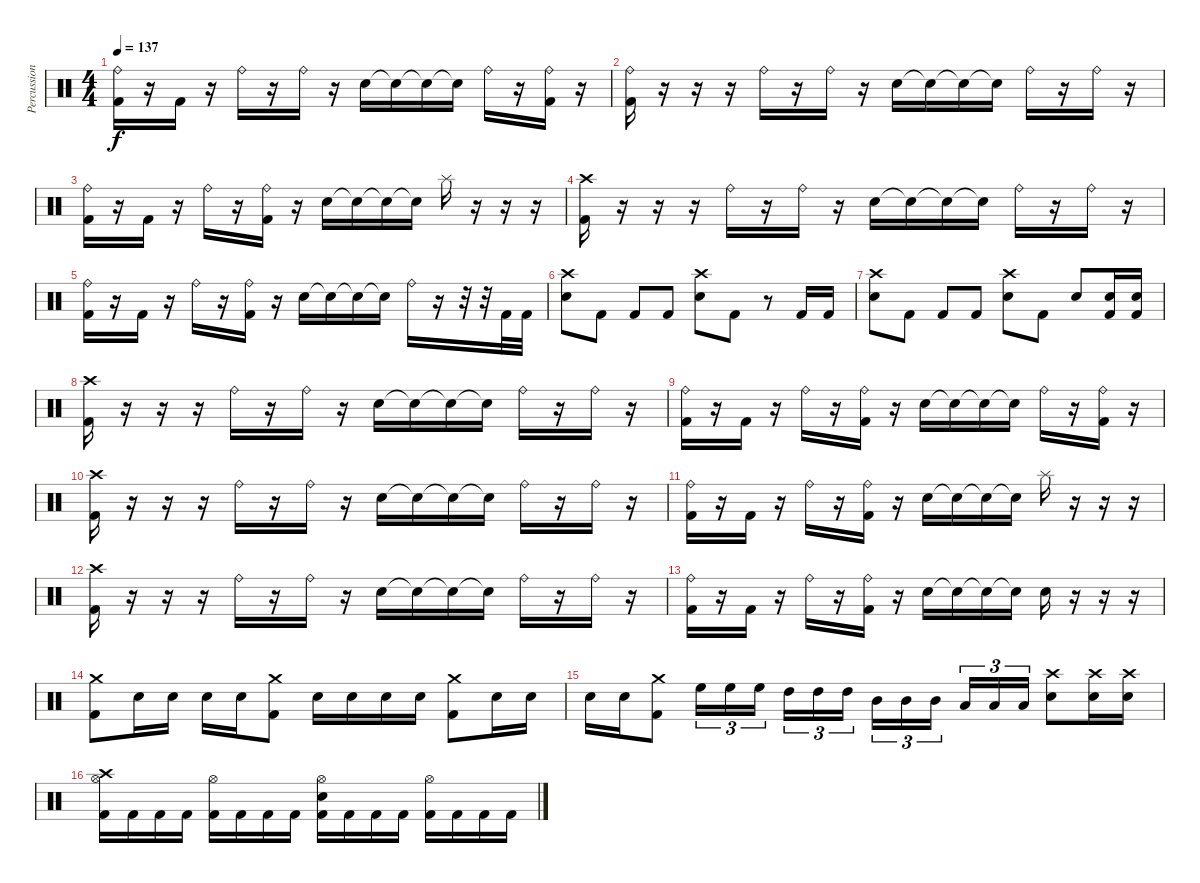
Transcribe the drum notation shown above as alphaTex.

\track ("Percussion" "Percussion") {instrument percussion}
\staff {score}
\articulation defaults
\ts (4 4)
\tempo 137
\clef neutral
\ks c
("Ride (bell)" "Kick (hit) 2").16{dy f} r.16 "Kick (hit) 2".16 r.16 "Ride (bell)".16 r.16 "Ride (bell)".16 r.16 "Electric Snare (hit)".16 "Electric Snare (hit)"{t}.16 "Electric Snare (hit)"{t}.16 "Electric Snare (hit)"{t}.16 "Ride (bell)".16 r.16 ("Ride (bell)" "Kick (hit) 2").16 r.16 |
("Ride (bell)" "Kick (hit) 2").16 r.16 r.16 r.16 "Ride (bell)".16 r.16 "Ride (bell)".16 r.16 "Electric Snare (hit)".16 "Electric Snare (hit)"{t}.16 "Electric Snare (hit)"{t}.16 "Electric Snare (hit)"{t}.16 "Ride (bell)".16 r.16 "Ride (bell)".16 r.16 |
("Ride (bell)" "Kick (hit) 2").16 r.16 "Kick (hit) 2".16 r.16 "Ride (bell)".16 r.16 ("Ride (bell)" "Kick (hit) 2").16 r.16 "Electric Snare (hit)".16 "Electric Snare (hit)"{t}.16 "Electric Snare (hit)"{t}.16 "Electric Snare (hit)"{t}.16 "Splash (hit)".16 r.16 r.16 r.16 |
("Crash high (hit)" "Kick (hit) 2").16 r.16 r.16 r.16 "Ride (bell)".16 r.16 "Ride (bell)".16 r.16 "Electric Snare (hit)".16 "Electric Snare (hit)"{t}.16 "Electric Snare (hit)"{t}.16 "Electric Snare (hit)"{t}.16 "Ride (bell)".16 r.16 "Ride (bell)".16 r.16 |
("Ride (bell)" "Kick (hit) 2").16 r.16 "Kick (hit) 2".16 r.16 "Ride (bell)".16 r.16 ("Ride (bell)" "Kick (hit) 2").16 r.16 "Electric Snare (hit)".16 "Electric Snare (hit)"{t}.16 "Electric Snare (hit)"{t}.16 "Electric Snare (hit)"{t}.16 "Ride (bell)".16 r.16 r.32 r.32 "Kick (hit) 2".32 "Kick (hit) 2".32 |
("Crash high (hit)" "Electric Snare (hit)").8 "Kick (hit) 2".8 "Kick (hit) 2".8 "Kick (hit) 2".8 ("Crash high (hit)" "Electric Snare (hit)").8 "Kick (hit) 2".8 r.8 "Kick (hit) 2".16 "Kick (hit) 2".16 |
("Crash high (hit)" "Electric Snare (hit)").8 "Kick (hit) 2".8 "Kick (hit) 2".8 "Kick (hit) 2".8 ("Crash high (hit)" "Electric Snare (hit)").8 "Kick (hit) 2".8 "Electric Snare (hit)".8 ("Electric Snare (hit)" "Kick (hit) 2").16 ("Electric Snare (hit)" "Kick (hit) 2").16 |
("Crash high (hit)" "Kick (hit) 2").16 r.16 r.16 r.16 "Ride (bell)".16 r.16 "Ride (bell)".16 r.16 "Electric Snare (hit)".16 "Electric Snare (hit)"{t}.16 "Electric Snare (hit)"{t}.16 "Electric Snare (hit)"{t}.16 "Ride (bell)".16 r.16 "Ride (bell)".16 r.16 |
("Ride (bell)" "Kick (hit) 2").16 r.16 "Kick (hit) 2".16 r.16 "Ride (bell)".16 r.16 ("Ride (bell)" "Kick (hit) 2").16 r.16 "Electric Snare (hit)".16 "Electric Snare (hit)"{t}.16 "Electric Snare (hit)"{t}.16 "Electric Snare (hit)"{t}.16 "Ride (bell)".16 r.16 ("Ride (bell)" "Kick (hit) 2").16 r.16 |
("Crash high (hit)" "Kick (hit) 2").16 r.16 r.16 r.16 "Ride (bell)".16 r.16 "Ride (bell)".16 r.16 "Electric Snare (hit)".16 "Electric Snare (hit)"{t}.16 "Electric Snare (hit)"{t}.16 "Electric Snare (hit)"{t}.16 "Ride (bell)".16 r.16 "Ride (bell)".16 r.16 |
("Ride (bell)" "Kick (hit) 2").16 r.16 "Kick (hit) 2".16 r.16 "Ride (bell)".16 r.16 ("Ride (bell)" "Kick (hit) 2").16 r.16 "Electric Snare (hit)".16 "Electric Snare (hit)"{t}.16 "Electric Snare (hit)"{t}.16 "Electric Snare (hit)"{t}.16 "Splash (hit)".16 r.16 r.16 r.16 |
("Crash high (hit)" "Kick (hit) 2").16 r.16 r.16 r.16 "Ride (bell)".16 r.16 "Ride (bell)".16 r.16 "Electric Snare (hit)".16 "Electric Snare (hit)"{t}.16 "Electric Snare (hit)"{t}.16 "Electric Snare (hit)"{t}.16 "Ride (bell)".16 r.16 "Ride (bell)".16 r.16 |
("Ride (bell)" "Kick (hit) 2").16 r.16 "Kick (hit) 2".16 r.16 "Ride (bell)".16 r.16 ("Ride (bell)" "Kick (hit) 2").16 r.16 "Electric Snare (hit)".16 "Electric Snare (hit)"{t}.16 "Electric Snare (hit)"{t}.16 "Electric Snare (hit)"{t}.16 "Electric Snare (hit)".16 r.16 r.16 r.16 |
("Crash medium (hit)" "Kick (hit) 2").8 "Electric Snare (hit)".16 "Electric Snare (hit)".16 "Electric Snare (hit)".16 "Electric Snare (hit)".16 ("Crash medium (hit)" "Kick (hit) 2").8 "Electric Snare (hit)".16 "Electric Snare (hit)".16 "Electric Snare (hit)".16 "Electric Snare (hit)".16 ("Crash medium (hit)" "Kick (hit) 2").8 "Electric Snare (hit)".16 "Electric Snare (hit)".16 |
"Electric Snare (hit)".16 "Electric Snare (hit)".16 ("Crash medium (hit)" "Kick (hit) 2").8 "High Floor Tom (hit)".16{tu (3 2)} "High Floor Tom (hit)".16{tu (3 2)} "High Floor Tom (hit)".16{tu (3 2) beam splitsecondary} "High Tom (hit)".16{tu (3 2)} "High Tom (hit)".16{tu (3 2)} "High Tom (hit)".16{tu (3 2)} "Mid Tom (hit)".16{tu (3 2)} "Mid Tom (hit)".16{tu (3 2)} "Mid Tom (hit)".16{tu (3 2) beam splitsecondary} "Low Tom (hit)".16{tu (3 2)} "Low Tom (hit)".16{tu (3 2)} "Low Tom (hit)".16{tu (3 2)} ("Crash high (hit)" "Electric Snare (hit)").8 ("Crash high (hit)" "Electric Snare (hit)").16 ("Crash high (hit)" "Electric Snare (hit)").16 |
("Crash high (hit)" "Hi-Hat (open)" "Kick (hit) 2").16 "Kick (hit) 2".16 "Kick (hit) 2".16 "Kick (hit) 2".16 ("Hi-Hat (open)" "Kick (hit) 2").16 "Kick (hit) 2".16 "Kick (hit) 2".16 "Kick (hit) 2".16 ("Hi-Hat (open)" "Electric Snare (hit)" "Kick (hit) 2").16 "Kick (hit) 2".16 "Kick (hit) 2".16 "Kick (hit) 2".16 ("Hi-Hat (open)" "Kick (hit) 2").16 "Kick (hit) 2".16 "Kick (hit) 2".16 "Kick (hit) 2".16
